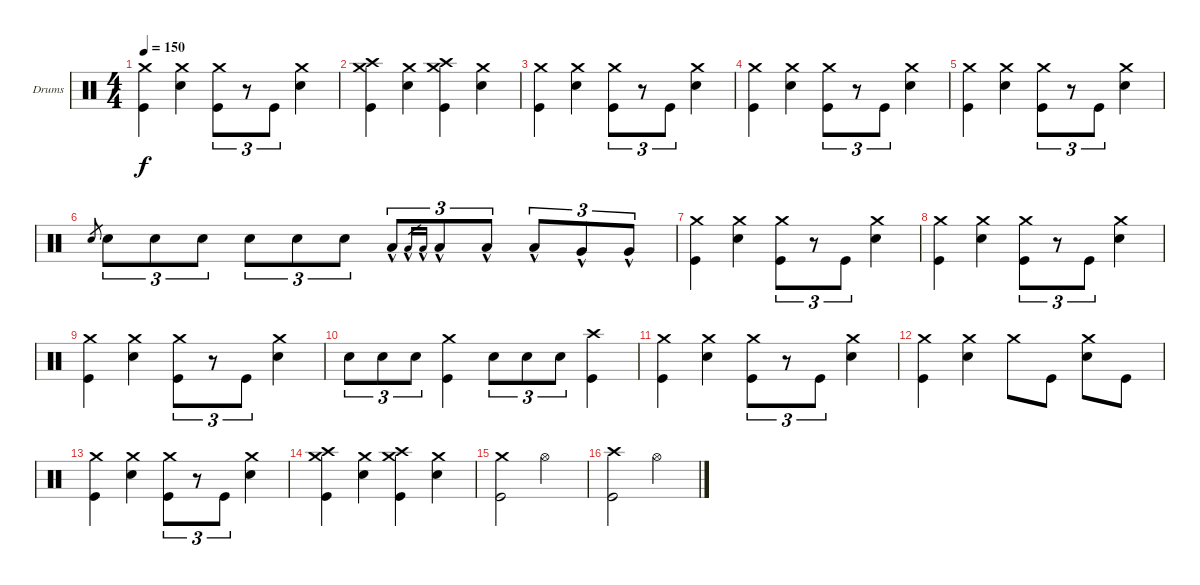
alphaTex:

\defaultSystemsLayout 4
\bracketExtendMode groupsimilarinstruments
\firstSystemTrackNameOrientation horizontal
\otherSystemsTrackNameOrientation horizontal
\track ("Drumkit" "Drums") {instrument percussion}
\staff {score}
\articulation defaults
\ts (4 4)
\tempo 150
\clef neutral
\ks c
("Kick (hit)" "Crash medium (hit)").4{dy f} ("Snare (hit) 2" "Crash medium (hit)").4 ("Kick (hit)" "Crash medium (hit)").8{tu (3 2)} r.8{tu (3 2)} "Kick (hit)".8{tu (3 2)} ("Snare (hit) 2" "Crash medium (hit)").4 |
("Kick (hit)" "Crash medium (hit)" "Crash high (hit)").4 ("Snare (hit) 2" "Crash medium (hit)").4 ("Kick (hit)" "Crash medium (hit)" "Crash high (hit)").4 ("Crash medium (hit)" "Snare (hit) 2").4 |
("Kick (hit)" "Crash medium (hit)").4 ("Snare (hit) 2" "Crash medium (hit)").4 ("Kick (hit)" "Crash medium (hit)").8{tu (3 2)} r.8{tu (3 2)} "Kick (hit)".8{tu (3 2)} ("Snare (hit) 2" "Crash medium (hit)").4 |
("Kick (hit)" "Crash medium (hit)").4 ("Snare (hit) 2" "Crash medium (hit)").4 ("Kick (hit)" "Crash medium (hit)").8{tu (3 2)} r.8{tu (3 2)} "Kick (hit)".8{tu (3 2)} ("Snare (hit) 2" "Crash medium (hit)").4 |
("Kick (hit)" "Crash medium (hit)").4 ("Snare (hit) 2" "Crash medium (hit)").4 ("Kick (hit)" "Crash medium (hit)").8{tu (3 2)} r.8{tu (3 2)} "Kick (hit)".8{tu (3 2)} ("Snare (hit) 2" "Crash medium (hit)").4 |
"Snare (hit) 2".8{gr} "Snare (hit) 2".8{tu (3 2)} "Snare (hit) 2".8{tu (3 2)} "Snare (hit) 2".8{tu (3 2)} "Snare (hit) 2".8{tu (3 2)} "Snare (hit) 2".8{tu (3 2)} "Snare (hit) 2".8{tu (3 2)} "Low Tom (hit)"{hac}.8{tu (3 2)} "Low Tom (hit)"{hac}.16{tu (3 2) gr} "Low Tom (hit)"{hac}.16{tu (3 2) gr} "Low Tom (hit)"{hac}.8{tu (3 2)} "Low Tom (hit)"{hac}.8{tu (3 2)} "Low Tom (hit)"{hac}.8{tu (3 2)} "Very Low Tom (hit)"{hac}.8{tu (3 2)} "Very Low Tom (hit)"{hac}.8{tu (3 2)} |
("Kick (hit)" "Crash medium (hit)").4 ("Snare (hit) 2" "Crash medium (hit)").4 ("Kick (hit)" "Crash medium (hit)").8{tu (3 2)} r.8{tu (3 2)} "Kick (hit)".8{tu (3 2)} ("Snare (hit) 2" "Crash medium (hit)").4 |
("Kick (hit)" "Crash medium (hit)").4 ("Snare (hit) 2" "Crash medium (hit)").4 ("Kick (hit)" "Crash medium (hit)").8{tu (3 2)} r.8{tu (3 2)} "Kick (hit)".8{tu (3 2)} ("Snare (hit) 2" "Crash medium (hit)").4 |
("Kick (hit)" "Crash medium (hit)").4 ("Snare (hit) 2" "Crash medium (hit)").4 ("Kick (hit)" "Crash medium (hit)").8{tu (3 2)} r.8{tu (3 2)} "Kick (hit)".8{tu (3 2)} ("Snare (hit) 2" "Crash medium (hit)").4 |
"Snare (hit) 2".8{tu (3 2)} "Snare (hit) 2".8{tu (3 2)} "Snare (hit) 2".8{tu (3 2)} ("Kick (hit)" "Crash medium (hit)").4 "Snare (hit) 2".8{tu (3 2)} "Snare (hit) 2".8{tu (3 2)} "Snare (hit) 2".8{tu (3 2)} ("Kick (hit)" "Crash high (hit)").4 |
("Kick (hit)" "Crash medium (hit)").4 ("Snare (hit) 2" "Crash medium (hit)").4 ("Kick (hit)" "Crash medium (hit)").8{tu (3 2)} r.8{tu (3 2)} "Kick (hit)".8{tu (3 2)} ("Snare (hit) 2" "Crash medium (hit)").4 |
("Kick (hit)" "Crash medium (hit)").4 ("Snare (hit) 2" "Crash medium (hit)").4 "Crash medium (hit)".8 "Kick (hit)".8 ("Snare (hit) 2" "Crash medium (hit)").8 "Kick (hit)".8 |
("Kick (hit)" "Crash medium (hit)").4 ("Snare (hit) 2" "Crash medium (hit)").4 ("Kick (hit)" "Crash medium (hit)").8{tu (3 2)} r.8{tu (3 2)} "Kick (hit)".8{tu (3 2)} ("Snare (hit) 2" "Crash medium (hit)").4 |
("Kick (hit)" "Crash medium (hit)" "Crash high (hit)").4 ("Snare (hit) 2" "Crash medium (hit)").4 ("Kick (hit)" "Crash medium (hit)" "Crash high (hit)").4 ("Crash medium (hit)" "Snare (hit) 2").4 |
("Kick (hit)" "Crash medium (hit)").2 "Hi-Hat (open)".2 |
("Kick (hit)" "Crash high (hit)").2 "Hi-Hat (open)".2
